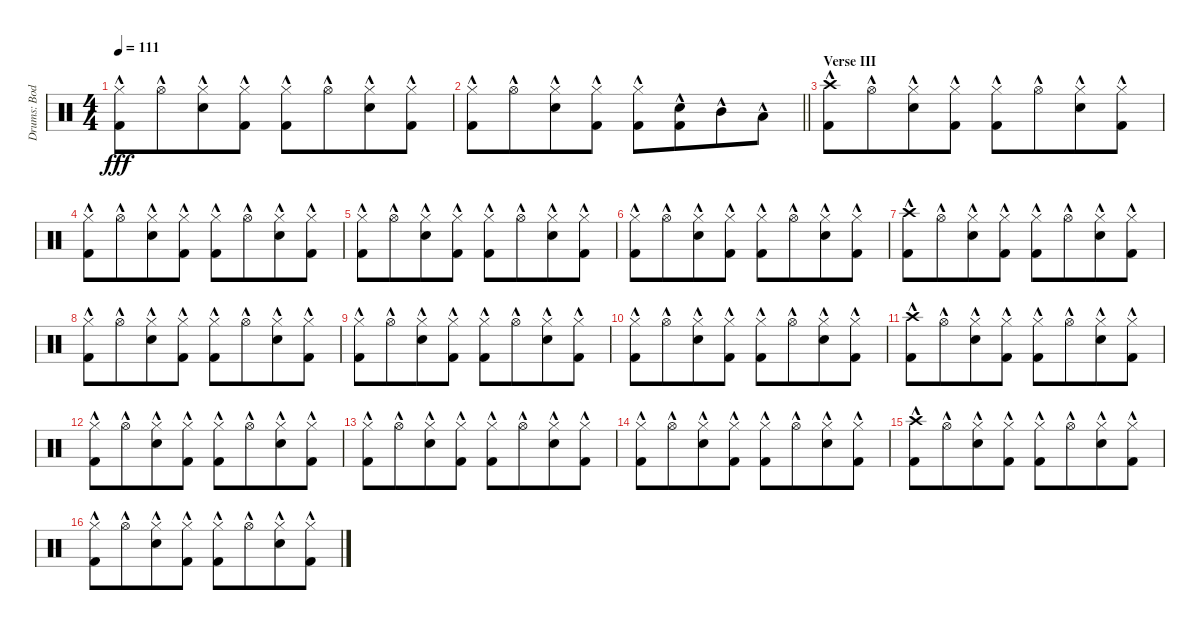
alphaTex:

\track ("Drums: Bodo" "Drums: Bod") {instrument percussion}
\staff {score}
\articulation defaults
\ts (4 4)
\tempo 111
\clef neutral
\ks c
("Hi-Hat (closed)"{hac} "Kick (hit) 2"{hac}).8{dy fff} "Hi-Hat (open)"{hac}.8{beam merge} ("Hi-Hat (closed)"{hac} "Electric Snare (hit)"{hac}).8 ("Hi-Hat (closed)"{hac} "Kick (hit) 2"{hac}).8 ("Hi-Hat (closed)"{hac} "Kick (hit) 2"{hac}).8 "Hi-Hat (open)"{hac}.8{beam merge} ("Hi-Hat (closed)"{hac} "Electric Snare (hit)"{hac}).8 ("Hi-Hat (closed)"{hac} "Kick (hit) 2"{hac}).8 |
\barLineRight lightlight
("Hi-Hat (closed)"{hac} "Kick (hit) 2"{hac}).8 "Hi-Hat (open)"{hac}.8{beam merge} ("Hi-Hat (closed)"{hac} "Electric Snare (hit)"{hac}).8 ("Hi-Hat (closed)"{hac} "Kick (hit) 2"{hac}).8 ("Hi-Hat (closed)"{hac} "Kick (hit) 2"{hac}).8 ("Electric Snare (hit)"{hac} "Kick (hit) 2"{hac}).8{beam merge} "Mid Tom (hit)"{hac}.8 "Low Tom (hit)"{hac}.8 |
\section ("" "Verse III")
("Crash high (hit)"{hac} "Kick (hit) 2"{hac}).8 "Hi-Hat (open)"{hac}.8{beam merge} ("Hi-Hat (closed)"{hac} "Electric Snare (hit)"{hac}).8 ("Hi-Hat (closed)"{hac} "Kick (hit) 2"{hac}).8 ("Hi-Hat (closed)"{hac} "Kick (hit) 2"{hac}).8 "Hi-Hat (open)"{hac}.8{beam merge} ("Hi-Hat (closed)"{hac} "Electric Snare (hit)"{hac}).8 ("Hi-Hat (closed)"{hac} "Kick (hit) 2"{hac}).8 |
("Hi-Hat (closed)"{hac} "Kick (hit) 2"{hac}).8 "Hi-Hat (open)"{hac}.8{beam merge} ("Hi-Hat (closed)"{hac} "Electric Snare (hit)"{hac}).8 ("Hi-Hat (closed)"{hac} "Kick (hit) 2"{hac}).8 ("Hi-Hat (closed)"{hac} "Kick (hit) 2"{hac}).8 "Hi-Hat (open)"{hac}.8{beam merge} ("Hi-Hat (closed)"{hac} "Electric Snare (hit)"{hac}).8 ("Hi-Hat (closed)"{hac} "Kick (hit) 2"{hac}).8 |
("Hi-Hat (closed)"{hac} "Kick (hit) 2"{hac}).8 "Hi-Hat (open)"{hac}.8{beam merge} ("Hi-Hat (closed)"{hac} "Electric Snare (hit)"{hac}).8 ("Hi-Hat (closed)"{hac} "Kick (hit) 2"{hac}).8 ("Hi-Hat (closed)"{hac} "Kick (hit) 2"{hac}).8 "Hi-Hat (open)"{hac}.8{beam merge} ("Hi-Hat (closed)"{hac} "Electric Snare (hit)"{hac}).8 ("Hi-Hat (closed)"{hac} "Kick (hit) 2"{hac}).8 |
("Hi-Hat (closed)"{hac} "Kick (hit) 2"{hac}).8 "Hi-Hat (open)"{hac}.8{beam merge} ("Hi-Hat (closed)"{hac} "Electric Snare (hit)"{hac}).8 ("Hi-Hat (closed)"{hac} "Kick (hit) 2"{hac}).8 ("Hi-Hat (closed)"{hac} "Kick (hit) 2"{hac}).8 "Hi-Hat (open)"{hac}.8{beam merge} ("Hi-Hat (closed)"{hac} "Electric Snare (hit)"{hac}).8 ("Hi-Hat (closed)"{hac} "Kick (hit) 2"{hac}).8 |
("Crash high (hit)"{hac} "Kick (hit) 2"{hac}).8 "Hi-Hat (open)"{hac}.8{beam merge} ("Hi-Hat (closed)"{hac} "Electric Snare (hit)"{hac}).8 ("Hi-Hat (closed)"{hac} "Kick (hit) 2"{hac}).8 ("Hi-Hat (closed)"{hac} "Kick (hit) 2"{hac}).8 "Hi-Hat (open)"{hac}.8{beam merge} ("Hi-Hat (closed)"{hac} "Electric Snare (hit)"{hac}).8 ("Hi-Hat (closed)"{hac} "Kick (hit) 2"{hac}).8 |
("Hi-Hat (closed)"{hac} "Kick (hit) 2"{hac}).8 "Hi-Hat (open)"{hac}.8{beam merge} ("Hi-Hat (closed)"{hac} "Electric Snare (hit)"{hac}).8 ("Hi-Hat (closed)"{hac} "Kick (hit) 2"{hac}).8 ("Hi-Hat (closed)"{hac} "Kick (hit) 2"{hac}).8 "Hi-Hat (open)"{hac}.8{beam merge} ("Hi-Hat (closed)"{hac} "Electric Snare (hit)"{hac}).8 ("Hi-Hat (closed)"{hac} "Kick (hit) 2"{hac}).8 |
("Hi-Hat (closed)"{hac} "Kick (hit) 2"{hac}).8 "Hi-Hat (open)"{hac}.8{beam merge} ("Hi-Hat (closed)"{hac} "Electric Snare (hit)"{hac}).8 ("Hi-Hat (closed)"{hac} "Kick (hit) 2"{hac}).8 ("Hi-Hat (closed)"{hac} "Kick (hit) 2"{hac}).8 "Hi-Hat (open)"{hac}.8{beam merge} ("Hi-Hat (closed)"{hac} "Electric Snare (hit)"{hac}).8 ("Hi-Hat (closed)"{hac} "Kick (hit) 2"{hac}).8 |
("Hi-Hat (closed)"{hac} "Kick (hit) 2"{hac}).8 "Hi-Hat (open)"{hac}.8{beam merge} ("Hi-Hat (closed)"{hac} "Electric Snare (hit)"{hac}).8 ("Hi-Hat (closed)"{hac} "Kick (hit) 2"{hac}).8 ("Hi-Hat (closed)"{hac} "Kick (hit) 2"{hac}).8 "Hi-Hat (open)"{hac}.8{beam merge} ("Hi-Hat (closed)"{hac} "Electric Snare (hit)"{hac}).8 ("Hi-Hat (closed)"{hac} "Kick (hit) 2"{hac}).8 |
("Crash high (hit)"{hac} "Kick (hit) 2"{hac}).8 "Hi-Hat (open)"{hac}.8{beam merge} ("Hi-Hat (closed)"{hac} "Electric Snare (hit)"{hac}).8 ("Hi-Hat (closed)"{hac} "Kick (hit) 2"{hac}).8 ("Hi-Hat (closed)"{hac} "Kick (hit) 2"{hac}).8 "Hi-Hat (open)"{hac}.8{beam merge} ("Hi-Hat (closed)"{hac} "Electric Snare (hit)"{hac}).8 ("Hi-Hat (closed)"{hac} "Kick (hit) 2"{hac}).8 |
("Hi-Hat (closed)"{hac} "Kick (hit) 2"{hac}).8 "Hi-Hat (open)"{hac}.8{beam merge} ("Hi-Hat (closed)"{hac} "Electric Snare (hit)"{hac}).8 ("Hi-Hat (closed)"{hac} "Kick (hit) 2"{hac}).8 ("Hi-Hat (closed)"{hac} "Kick (hit) 2"{hac}).8 "Hi-Hat (open)"{hac}.8{beam merge} ("Hi-Hat (closed)"{hac} "Electric Snare (hit)"{hac}).8 ("Hi-Hat (closed)"{hac} "Kick (hit) 2"{hac}).8 |
("Hi-Hat (closed)"{hac} "Kick (hit) 2"{hac}).8 "Hi-Hat (open)"{hac}.8{beam merge} ("Hi-Hat (closed)"{hac} "Electric Snare (hit)"{hac}).8 ("Hi-Hat (closed)"{hac} "Kick (hit) 2"{hac}).8 ("Hi-Hat (closed)"{hac} "Kick (hit) 2"{hac}).8 "Hi-Hat (open)"{hac}.8{beam merge} ("Hi-Hat (closed)"{hac} "Electric Snare (hit)"{hac}).8 ("Hi-Hat (closed)"{hac} "Kick (hit) 2"{hac}).8 |
("Hi-Hat (closed)"{hac} "Kick (hit) 2"{hac}).8 "Hi-Hat (open)"{hac}.8{beam merge} ("Hi-Hat (closed)"{hac} "Electric Snare (hit)"{hac}).8 ("Hi-Hat (closed)"{hac} "Kick (hit) 2"{hac}).8 ("Hi-Hat (closed)"{hac} "Kick (hit) 2"{hac}).8 "Hi-Hat (open)"{hac}.8{beam merge} ("Hi-Hat (closed)"{hac} "Electric Snare (hit)"{hac}).8 ("Hi-Hat (closed)"{hac} "Kick (hit) 2"{hac}).8 |
("Crash high (hit)"{hac} "Kick (hit) 2"{hac}).8 "Hi-Hat (open)"{hac}.8{beam merge} ("Hi-Hat (closed)"{hac} "Electric Snare (hit)"{hac}).8 ("Hi-Hat (closed)"{hac} "Kick (hit) 2"{hac}).8 ("Hi-Hat (closed)"{hac} "Kick (hit) 2"{hac}).8 "Hi-Hat (open)"{hac}.8{beam merge} ("Hi-Hat (closed)"{hac} "Electric Snare (hit)"{hac}).8 ("Hi-Hat (closed)"{hac} "Kick (hit) 2"{hac}).8 |
("Hi-Hat (closed)"{hac} "Kick (hit) 2"{hac}).8 "Hi-Hat (open)"{hac}.8{beam merge} ("Hi-Hat (closed)"{hac} "Electric Snare (hit)"{hac}).8 ("Hi-Hat (closed)"{hac} "Kick (hit) 2"{hac}).8 ("Hi-Hat (closed)"{hac} "Kick (hit) 2"{hac}).8 "Hi-Hat (open)"{hac}.8{beam merge} ("Hi-Hat (closed)"{hac} "Electric Snare (hit)"{hac}).8 ("Hi-Hat (closed)"{hac} "Kick (hit) 2"{hac}).8
